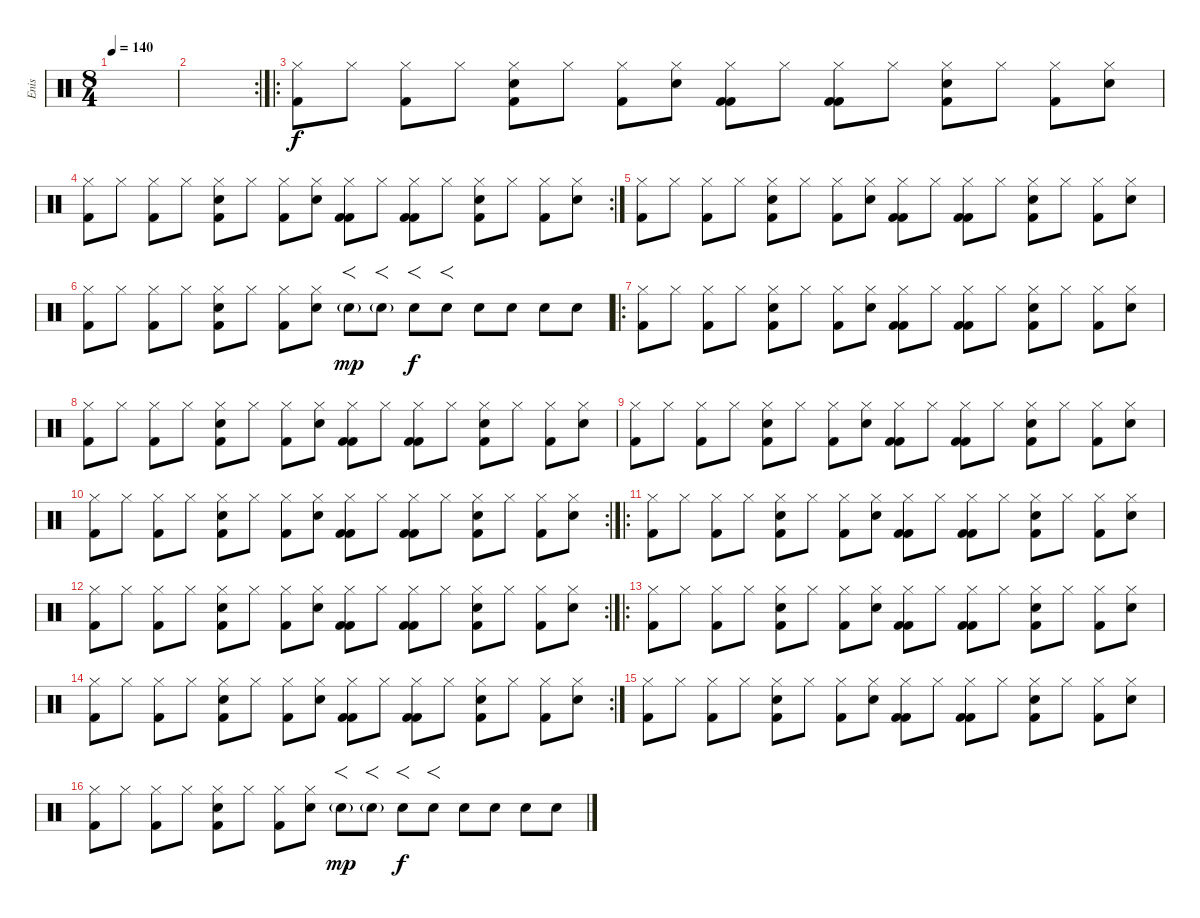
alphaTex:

\track ("Enis" "Enis") {instrument percussion}
\staff {score}
\articulation defaults
\ts (8 4)
\tempo 140
\clef neutral
\ks c
|
\rc 2
|
\ro
("Kick (hit) 2" "Hi-Hat (closed)").8 "Hi-Hat (closed)".8 ("Hi-Hat (closed)" "Kick (hit) 2").8 "Hi-Hat (closed)".8 ("Snare (hit) 2" "Hi-Hat (closed)" "Kick (hit) 2").8 "Hi-Hat (closed)".8 ("Hi-Hat (closed)" "Kick (hit) 2").8 ("Snare (hit) 2" "Hi-Hat (closed)").8 ("Hi-Hat (closed)" "Kick (hit) 2" "Kick (hit) 2").8 "Hi-Hat (closed)".8 ("Kick (hit) 2" "Hi-Hat (closed)" "Kick (hit) 2").8 "Hi-Hat (closed)".8 ("Snare (hit) 2" "Hi-Hat (closed)" "Kick (hit) 2").8 "Hi-Hat (closed)".8 ("Hi-Hat (closed)" "Kick (hit) 2").8 ("Snare (hit) 2" "Hi-Hat (closed)").8 |
\rc 2
("Kick (hit) 2" "Hi-Hat (closed)").8 "Hi-Hat (closed)".8 ("Hi-Hat (closed)" "Kick (hit) 2").8 "Hi-Hat (closed)".8 ("Snare (hit) 2" "Hi-Hat (closed)" "Kick (hit) 2").8 "Hi-Hat (closed)".8 ("Hi-Hat (closed)" "Kick (hit) 2").8 ("Snare (hit) 2" "Hi-Hat (closed)").8 ("Hi-Hat (closed)" "Kick (hit) 2" "Kick (hit) 2").8 "Hi-Hat (closed)".8 ("Kick (hit) 2" "Hi-Hat (closed)" "Kick (hit) 2").8 "Hi-Hat (closed)".8 ("Snare (hit) 2" "Hi-Hat (closed)" "Kick (hit) 2").8 "Hi-Hat (closed)".8 ("Hi-Hat (closed)" "Kick (hit) 2").8 ("Snare (hit) 2" "Hi-Hat (closed)").8 |
("Kick (hit) 2" "Hi-Hat (closed)").8 "Hi-Hat (closed)".8 ("Hi-Hat (closed)" "Kick (hit) 2").8 "Hi-Hat (closed)".8 ("Snare (hit) 2" "Hi-Hat (closed)" "Kick (hit) 2").8 "Hi-Hat (closed)".8 ("Hi-Hat (closed)" "Kick (hit) 2").8 ("Snare (hit) 2" "Hi-Hat (closed)").8 ("Hi-Hat (closed)" "Kick (hit) 2" "Kick (hit) 2").8 "Hi-Hat (closed)".8 ("Kick (hit) 2" "Hi-Hat (closed)" "Kick (hit) 2").8 "Hi-Hat (closed)".8 ("Snare (hit) 2" "Hi-Hat (closed)" "Kick (hit) 2").8 "Hi-Hat (closed)".8 ("Hi-Hat (closed)" "Kick (hit) 2").8 ("Snare (hit) 2" "Hi-Hat (closed)").8 |
("Kick (hit) 2" "Hi-Hat (closed)").8 "Hi-Hat (closed)".8 ("Hi-Hat (closed)" "Kick (hit) 2").8 "Hi-Hat (closed)".8 ("Snare (hit) 2" "Hi-Hat (closed)" "Kick (hit) 2").8 "Hi-Hat (closed)".8 ("Hi-Hat (closed)" "Kick (hit) 2").8 ("Snare (hit) 2" "Hi-Hat (closed)").8 "Snare (hit) 2"{g}.8{f dy mp} "Snare (hit) 2"{g}.8{f} "Snare (hit) 2".8{f dy f} "Snare (hit) 2".8{f} "Snare (hit) 2".8 "Snare (hit) 2".8 "Snare (hit) 2".8 "Snare (hit) 2".8 |
\ro
("Kick (hit) 2" "Hi-Hat (closed)").8 "Hi-Hat (closed)".8 ("Hi-Hat (closed)" "Kick (hit) 2").8 "Hi-Hat (closed)".8 ("Snare (hit) 2" "Hi-Hat (closed)" "Kick (hit) 2").8 "Hi-Hat (closed)".8 ("Hi-Hat (closed)" "Kick (hit) 2").8 ("Snare (hit) 2" "Hi-Hat (closed)").8 ("Hi-Hat (closed)" "Kick (hit) 2" "Kick (hit) 2").8 "Hi-Hat (closed)".8 ("Kick (hit) 2" "Hi-Hat (closed)" "Kick (hit) 2").8 "Hi-Hat (closed)".8 ("Snare (hit) 2" "Hi-Hat (closed)" "Kick (hit) 2").8 "Hi-Hat (closed)".8 ("Hi-Hat (closed)" "Kick (hit) 2").8 ("Snare (hit) 2" "Hi-Hat (closed)").8 |
("Kick (hit) 2" "Hi-Hat (closed)").8 "Hi-Hat (closed)".8 ("Hi-Hat (closed)" "Kick (hit) 2").8 "Hi-Hat (closed)".8 ("Snare (hit) 2" "Hi-Hat (closed)" "Kick (hit) 2").8 "Hi-Hat (closed)".8 ("Hi-Hat (closed)" "Kick (hit) 2").8 ("Snare (hit) 2" "Hi-Hat (closed)").8 ("Hi-Hat (closed)" "Kick (hit) 2" "Kick (hit) 2").8 "Hi-Hat (closed)".8 ("Kick (hit) 2" "Hi-Hat (closed)" "Kick (hit) 2").8 "Hi-Hat (closed)".8 ("Snare (hit) 2" "Hi-Hat (closed)" "Kick (hit) 2").8 "Hi-Hat (closed)".8 ("Hi-Hat (closed)" "Kick (hit) 2").8 ("Snare (hit) 2" "Hi-Hat (closed)").8 |
("Kick (hit) 2" "Hi-Hat (closed)").8 "Hi-Hat (closed)".8 ("Hi-Hat (closed)" "Kick (hit) 2").8 "Hi-Hat (closed)".8 ("Snare (hit) 2" "Hi-Hat (closed)" "Kick (hit) 2").8 "Hi-Hat (closed)".8 ("Hi-Hat (closed)" "Kick (hit) 2").8 ("Snare (hit) 2" "Hi-Hat (closed)").8 ("Hi-Hat (closed)" "Kick (hit) 2" "Kick (hit) 2").8 "Hi-Hat (closed)".8 ("Kick (hit) 2" "Hi-Hat (closed)" "Kick (hit) 2").8 "Hi-Hat (closed)".8 ("Snare (hit) 2" "Hi-Hat (closed)" "Kick (hit) 2").8 "Hi-Hat (closed)".8 ("Hi-Hat (closed)" "Kick (hit) 2").8 ("Snare (hit) 2" "Hi-Hat (closed)").8 |
\rc 2
("Kick (hit) 2" "Hi-Hat (closed)").8 "Hi-Hat (closed)".8 ("Hi-Hat (closed)" "Kick (hit) 2").8 "Hi-Hat (closed)".8 ("Snare (hit) 2" "Hi-Hat (closed)" "Kick (hit) 2").8 "Hi-Hat (closed)".8 ("Hi-Hat (closed)" "Kick (hit) 2").8 ("Snare (hit) 2" "Hi-Hat (closed)").8 ("Hi-Hat (closed)" "Kick (hit) 2" "Kick (hit) 2").8 "Hi-Hat (closed)".8 ("Kick (hit) 2" "Hi-Hat (closed)" "Kick (hit) 2").8 "Hi-Hat (closed)".8 ("Snare (hit) 2" "Hi-Hat (closed)" "Kick (hit) 2").8 "Hi-Hat (closed)".8 ("Hi-Hat (closed)" "Kick (hit) 2").8 ("Snare (hit) 2" "Hi-Hat (closed)").8 |
\ro
("Kick (hit) 2" "Hi-Hat (closed)").8 "Hi-Hat (closed)".8 ("Hi-Hat (closed)" "Kick (hit) 2").8 "Hi-Hat (closed)".8 ("Snare (hit) 2" "Hi-Hat (closed)" "Kick (hit) 2").8 "Hi-Hat (closed)".8 ("Hi-Hat (closed)" "Kick (hit) 2").8 ("Snare (hit) 2" "Hi-Hat (closed)").8 ("Hi-Hat (closed)" "Kick (hit) 2" "Kick (hit) 2").8 "Hi-Hat (closed)".8 ("Kick (hit) 2" "Hi-Hat (closed)" "Kick (hit) 2").8 "Hi-Hat (closed)".8 ("Snare (hit) 2" "Hi-Hat (closed)" "Kick (hit) 2").8 "Hi-Hat (closed)".8 ("Hi-Hat (closed)" "Kick (hit) 2").8 ("Snare (hit) 2" "Hi-Hat (closed)").8 |
\rc 2
("Kick (hit) 2" "Hi-Hat (closed)").8 "Hi-Hat (closed)".8 ("Hi-Hat (closed)" "Kick (hit) 2").8 "Hi-Hat (closed)".8 ("Snare (hit) 2" "Hi-Hat (closed)" "Kick (hit) 2").8 "Hi-Hat (closed)".8 ("Hi-Hat (closed)" "Kick (hit) 2").8 ("Snare (hit) 2" "Hi-Hat (closed)").8 ("Hi-Hat (closed)" "Kick (hit) 2" "Kick (hit) 2").8 "Hi-Hat (closed)".8 ("Kick (hit) 2" "Hi-Hat (closed)" "Kick (hit) 2").8 "Hi-Hat (closed)".8 ("Snare (hit) 2" "Hi-Hat (closed)" "Kick (hit) 2").8 "Hi-Hat (closed)".8 ("Hi-Hat (closed)" "Kick (hit) 2").8 ("Snare (hit) 2" "Hi-Hat (closed)").8 |
\ro
("Kick (hit) 2" "Hi-Hat (closed)").8 "Hi-Hat (closed)".8 ("Hi-Hat (closed)" "Kick (hit) 2").8 "Hi-Hat (closed)".8 ("Snare (hit) 2" "Hi-Hat (closed)" "Kick (hit) 2").8 "Hi-Hat (closed)".8 ("Hi-Hat (closed)" "Kick (hit) 2").8 ("Snare (hit) 2" "Hi-Hat (closed)").8 ("Hi-Hat (closed)" "Kick (hit) 2" "Kick (hit) 2").8 "Hi-Hat (closed)".8 ("Kick (hit) 2" "Hi-Hat (closed)" "Kick (hit) 2").8 "Hi-Hat (closed)".8 ("Snare (hit) 2" "Hi-Hat (closed)" "Kick (hit) 2").8 "Hi-Hat (closed)".8 ("Hi-Hat (closed)" "Kick (hit) 2").8 ("Snare (hit) 2" "Hi-Hat (closed)").8 |
\rc 2
("Kick (hit) 2" "Hi-Hat (closed)").8 "Hi-Hat (closed)".8 ("Hi-Hat (closed)" "Kick (hit) 2").8 "Hi-Hat (closed)".8 ("Snare (hit) 2" "Hi-Hat (closed)" "Kick (hit) 2").8 "Hi-Hat (closed)".8 ("Hi-Hat (closed)" "Kick (hit) 2").8 ("Snare (hit) 2" "Hi-Hat (closed)").8 ("Hi-Hat (closed)" "Kick (hit) 2" "Kick (hit) 2").8 "Hi-Hat (closed)".8 ("Kick (hit) 2" "Hi-Hat (closed)" "Kick (hit) 2").8 "Hi-Hat (closed)".8 ("Snare (hit) 2" "Hi-Hat (closed)" "Kick (hit) 2").8 "Hi-Hat (closed)".8 ("Hi-Hat (closed)" "Kick (hit) 2").8 ("Snare (hit) 2" "Hi-Hat (closed)").8 |
("Kick (hit) 2" "Hi-Hat (closed)").8 "Hi-Hat (closed)".8 ("Hi-Hat (closed)" "Kick (hit) 2").8 "Hi-Hat (closed)".8 ("Snare (hit) 2" "Hi-Hat (closed)" "Kick (hit) 2").8 "Hi-Hat (closed)".8 ("Hi-Hat (closed)" "Kick (hit) 2").8 ("Snare (hit) 2" "Hi-Hat (closed)").8 ("Hi-Hat (closed)" "Kick (hit) 2" "Kick (hit) 2").8 "Hi-Hat (closed)".8 ("Kick (hit) 2" "Hi-Hat (closed)" "Kick (hit) 2").8 "Hi-Hat (closed)".8 ("Snare (hit) 2" "Hi-Hat (closed)" "Kick (hit) 2").8 "Hi-Hat (closed)".8 ("Hi-Hat (closed)" "Kick (hit) 2").8 ("Snare (hit) 2" "Hi-Hat (closed)").8 |
("Kick (hit) 2" "Hi-Hat (closed)").8 "Hi-Hat (closed)".8 ("Hi-Hat (closed)" "Kick (hit) 2").8 "Hi-Hat (closed)".8 ("Snare (hit) 2" "Hi-Hat (closed)" "Kick (hit) 2").8 "Hi-Hat (closed)".8 ("Hi-Hat (closed)" "Kick (hit) 2").8 ("Snare (hit) 2" "Hi-Hat (closed)").8 "Snare (hit) 2"{g}.8{f dy mp} "Snare (hit) 2"{g}.8{f} "Snare (hit) 2".8{f dy f} "Snare (hit) 2".8{f} "Snare (hit) 2".8 "Snare (hit) 2".8 "Snare (hit) 2".8 "Snare (hit) 2".8
